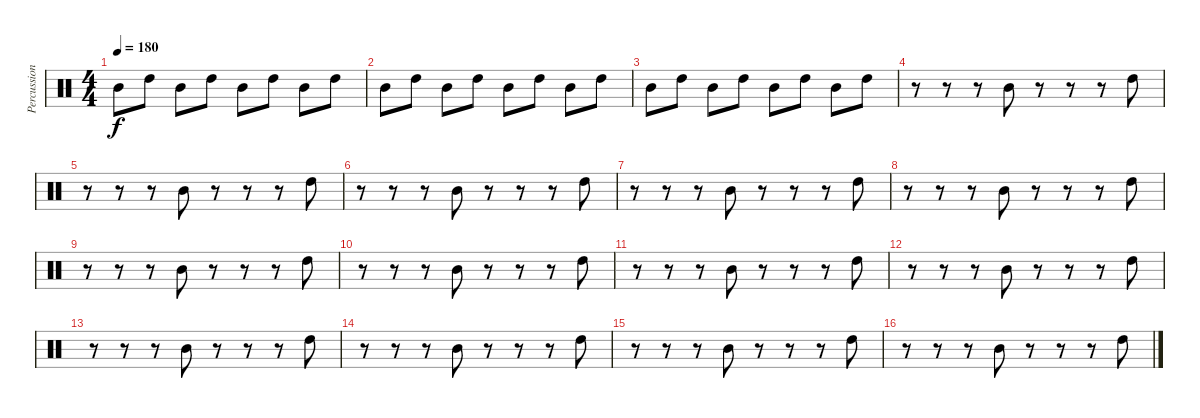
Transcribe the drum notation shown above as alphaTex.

\track ("Percussions" "Percussion") {instrument percussion}
\staff {score}
\articulation defaults
\ts (4 4)
\tempo 180
\clef neutral
\ks c "Mid Tom (hit)".8{dy f} "High Tom (hit)".8 "Mid Tom (hit)".8 "High Tom (hit)".8 "Mid Tom (hit)".8 "High Tom (hit)".8 "Mid Tom (hit)".8 "High Tom (hit)".8
|
"Mid Tom (hit)".8 "High Tom (hit)".8 "Mid Tom (hit)".8 "High Tom (hit)".8 "Mid Tom (hit)".8 "High Tom (hit)".8 "Mid Tom (hit)".8 "High Tom (hit)".8 |
"Mid Tom (hit)".8 "High Tom (hit)".8 "Mid Tom (hit)".8 "High Tom (hit)".8 "Mid Tom (hit)".8 "High Tom (hit)".8 "Mid Tom (hit)".8 "High Tom (hit)".8 |
r.8 r.8 r.8 "Mid Tom (hit)".8 r.8 r.8 r.8 "High Tom (hit)".8 |
r.8 r.8 r.8 "Mid Tom (hit)".8 r.8 r.8 r.8 "High Tom (hit)".8 |
r.8 r.8 r.8 "Mid Tom (hit)".8 r.8 r.8 r.8 "High Tom (hit)".8 |
r.8 r.8 r.8 "Mid Tom (hit)".8 r.8 r.8 r.8 "High Tom (hit)".8 |
r.8 r.8 r.8 "Mid Tom (hit)".8 r.8 r.8 r.8 "High Tom (hit)".8 |
r.8 r.8 r.8 "Mid Tom (hit)".8 r.8 r.8 r.8 "High Tom (hit)".8 |
r.8 r.8 r.8 "Mid Tom (hit)".8 r.8 r.8 r.8 "High Tom (hit)".8 |
r.8 r.8 r.8 "Mid Tom (hit)".8 r.8 r.8 r.8 "High Tom (hit)".8 |
r.8 r.8 r.8 "Mid Tom (hit)".8 r.8 r.8 r.8 "High Tom (hit)".8 |
r.8 r.8 r.8 "Mid Tom (hit)".8 r.8 r.8 r.8 "High Tom (hit)".8 |
r.8 r.8 r.8 "Mid Tom (hit)".8 r.8 r.8 r.8 "High Tom (hit)".8 |
r.8 r.8 r.8 "Mid Tom (hit)".8 r.8 r.8 r.8 "High Tom (hit)".8 |
r.8 r.8 r.8 "Mid Tom (hit)".8 r.8 r.8 r.8 "High Tom (hit)".8
